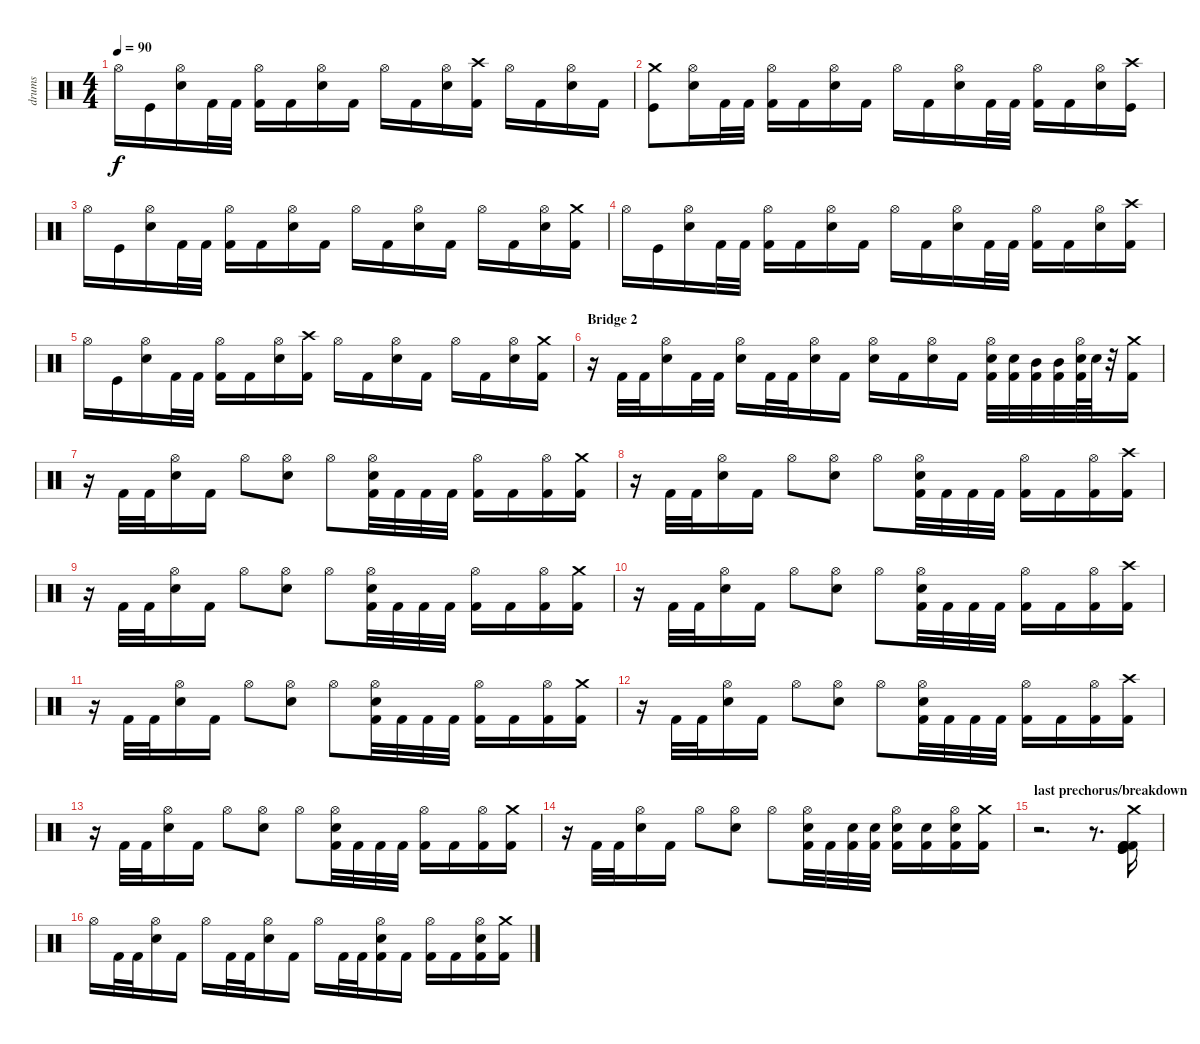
\track ("drums" "drums") {instrument percussion}
\staff {score}
\articulation defaults
\ts (4 4)
\tempo 90
\clef neutral
\ks c "Hi-Hat (open)".16{dy f} "Kick (hit)".16
("Hi-Hat (open)" "Electric Snare (hit)").16 "Kick (hit) 2".32 "Kick (hit) 2".32 ("Hi-Hat (open)" "Kick (hit) 2").16 "Kick (hit) 2".16 ("Hi-Hat (open)" "Electric Snare (hit)").16 "Kick (hit) 2".16 "Hi-Hat (open)".16 "Kick (hit) 2".16 ("Hi-Hat (open)" "Electric Snare (hit)").16 ("Crash high (hit)" "Kick (hit) 2").16 "Hi-Hat (open)".16 "Kick (hit) 2".16 ("Hi-Hat (open)" "Electric Snare (hit)").16 "Kick (hit) 2".16 |
("Crash medium (hit)" "Kick (hit)").8 ("Hi-Hat (open)" "Electric Snare (hit)").16 "Kick (hit) 2".32 "Kick (hit) 2".32 ("Hi-Hat (open)" "Kick (hit) 2").16 "Kick (hit) 2".16 ("Hi-Hat (open)" "Electric Snare (hit)").16 "Kick (hit) 2".16 "Hi-Hat (open)".16 "Kick (hit) 2".16 ("Hi-Hat (open)" "Electric Snare (hit)").16 "Kick (hit) 2".32 "Kick (hit) 2".32 ("Hi-Hat (open)" "Kick (hit) 2").16 "Kick (hit) 2".16 ("Hi-Hat (open)" "Electric Snare (hit)").16 ("Crash high (hit)" "Kick (hit)").16 |
"Hi-Hat (open)".16 "Kick (hit)".16 ("Hi-Hat (open)" "Electric Snare (hit)").16 "Kick (hit) 2".32 "Kick (hit) 2".32 ("Hi-Hat (open)" "Kick (hit) 2").16 "Kick (hit) 2".16 ("Hi-Hat (open)" "Electric Snare (hit)").16 "Kick (hit) 2".16 "Hi-Hat (open)".16 "Kick (hit) 2".16 ("Hi-Hat (open)" "Electric Snare (hit)").16 "Kick (hit) 2".16 "Hi-Hat (open)".16 "Kick (hit) 2".16 ("Hi-Hat (open)" "Electric Snare (hit)").16 ("Crash medium (hit)" "Kick (hit) 2").16 |
"Hi-Hat (open)".16 "Kick (hit)".16 ("Hi-Hat (open)" "Electric Snare (hit)").16 "Kick (hit) 2".32 "Kick (hit) 2".32 ("Hi-Hat (open)" "Kick (hit) 2").16 "Kick (hit) 2".16 ("Hi-Hat (open)" "Electric Snare (hit)").16 "Kick (hit) 2".16 "Hi-Hat (open)".16 "Kick (hit) 2".16 ("Hi-Hat (open)" "Electric Snare (hit)").16 "Kick (hit) 2".32 "Kick (hit) 2".32 ("Hi-Hat (open)" "Kick (hit) 2").16 "Kick (hit) 2".16 ("Hi-Hat (open)" "Electric Snare (hit)").16 ("Crash high (hit)" "Kick (hit) 2").16 |
"Hi-Hat (open)".16 "Kick (hit)".16 ("Hi-Hat (open)" "Electric Snare (hit)").16 "Kick (hit) 2".32 "Kick (hit) 2".32 ("Hi-Hat (open)" "Kick (hit) 2").16 "Kick (hit) 2".16 ("Hi-Hat (open)" "Electric Snare (hit)").16 ("Crash high (hit)" "Kick (hit) 2").16 "Hi-Hat (open)".16 "Kick (hit) 2".16 ("Hi-Hat (open)" "Electric Snare (hit)").16 "Kick (hit) 2".16 "Hi-Hat (open)".16 "Kick (hit) 2".16 ("Hi-Hat (open)" "Electric Snare (hit)").16 ("Crash medium (hit)" "Kick (hit) 2").16 |
\section ("" "Bridge 2")
r.16 "Kick (hit) 2".32 "Kick (hit) 2".32 ("Hi-Hat (open)" "Electric Snare (hit)").16 "Kick (hit) 2".32 "Kick (hit) 2".32 ("Hi-Hat (open)" "Electric Snare (hit)").16 "Kick (hit) 2".32 "Kick (hit) 2".32 ("Hi-Hat (open)" "Electric Snare (hit)").16 "Kick (hit) 2".16 ("Hi-Hat (open)" "Electric Snare (hit)").16 "Kick (hit) 2".16 ("Hi-Hat (open)" "Electric Snare (hit)").16 "Kick (hit) 2".16 ("Hi-Hat (open)" "Electric Snare (hit)" "Kick (hit) 2").32 ("Electric Snare (hit)" "Kick (hit) 2").32 ("Mid Tom (hit)" "Kick (hit) 2").32 ("Mid Tom (hit)" "Kick (hit) 2").32 ("Hi-Hat (open)" "Electric Snare (hit)" "Kick (hit) 2").64 "Electric Snare (hit)".64 r.32 ("Crash medium (hit)" "Kick (hit) 2").16 |
r.16 "Kick (hit) 2".32 "Kick (hit) 2".32 ("Hi-Hat (open)" "Electric Snare (hit)").16 "Kick (hit) 2".16 "Hi-Hat (open)".8 ("Hi-Hat (open)" "Electric Snare (hit)").8 "Hi-Hat (open)".8 ("Hi-Hat (open)" "Electric Snare (hit)" "Kick (hit) 2").32 "Kick (hit) 2".32 "Kick (hit) 2".32 "Kick (hit) 2".32 ("Hi-Hat (open)" "Kick (hit) 2").16 "Kick (hit) 2".16 ("Hi-Hat (open)" "Kick (hit) 2").16 ("Crash medium (hit)" "Kick (hit) 2").16 |
r.16 "Kick (hit) 2".32 "Kick (hit) 2".32 ("Hi-Hat (open)" "Electric Snare (hit)").16 "Kick (hit) 2".16 "Hi-Hat (open)".8 ("Hi-Hat (open)" "Electric Snare (hit)").8 "Hi-Hat (open)".8 ("Hi-Hat (open)" "Electric Snare (hit)" "Kick (hit) 2").32 "Kick (hit) 2".32 "Kick (hit) 2".32 "Kick (hit) 2".32 ("Hi-Hat (open)" "Kick (hit) 2").16 "Kick (hit) 2".16 ("Hi-Hat (open)" "Kick (hit) 2").16 ("Crash high (hit)" "Kick (hit) 2").16 |
r.16 "Kick (hit) 2".32 "Kick (hit) 2".32 ("Hi-Hat (open)" "Electric Snare (hit)").16 "Kick (hit) 2".16 "Hi-Hat (open)".8 ("Hi-Hat (open)" "Electric Snare (hit)").8 "Hi-Hat (open)".8 ("Hi-Hat (open)" "Electric Snare (hit)" "Kick (hit) 2").32 "Kick (hit) 2".32 "Kick (hit) 2".32 "Kick (hit) 2".32 ("Hi-Hat (open)" "Kick (hit) 2").16 "Kick (hit) 2".16 ("Hi-Hat (open)" "Kick (hit) 2").16 ("Crash medium (hit)" "Kick (hit) 2").16 |
r.16 "Kick (hit) 2".32 "Kick (hit) 2".32 ("Hi-Hat (open)" "Electric Snare (hit)").16 "Kick (hit) 2".16 "Hi-Hat (open)".8 ("Hi-Hat (open)" "Electric Snare (hit)").8 "Hi-Hat (open)".8 ("Hi-Hat (open)" "Electric Snare (hit)" "Kick (hit) 2").32 "Kick (hit) 2".32 "Kick (hit) 2".32 "Kick (hit) 2".32 ("Hi-Hat (open)" "Kick (hit) 2").16 "Kick (hit) 2".16 ("Hi-Hat (open)" "Kick (hit) 2").16 ("Crash high (hit)" "Kick (hit) 2").16 |
r.16 "Kick (hit) 2".32 "Kick (hit) 2".32 ("Hi-Hat (open)" "Electric Snare (hit)").16 "Kick (hit) 2".16 "Hi-Hat (open)".8 ("Hi-Hat (open)" "Electric Snare (hit)").8 "Hi-Hat (open)".8 ("Hi-Hat (open)" "Electric Snare (hit)" "Kick (hit) 2").32 "Kick (hit) 2".32 "Kick (hit) 2".32 "Kick (hit) 2".32 ("Hi-Hat (open)" "Kick (hit) 2").16 "Kick (hit) 2".16 ("Hi-Hat (open)" "Kick (hit) 2").16 ("Crash medium (hit)" "Kick (hit) 2").16 |
r.16 "Kick (hit) 2".32 "Kick (hit) 2".32 ("Hi-Hat (open)" "Electric Snare (hit)").16 "Kick (hit) 2".16 "Hi-Hat (open)".8 ("Hi-Hat (open)" "Electric Snare (hit)").8 "Hi-Hat (open)".8 ("Hi-Hat (open)" "Electric Snare (hit)" "Kick (hit) 2").32 "Kick (hit) 2".32 "Kick (hit) 2".32 "Kick (hit) 2".32 ("Hi-Hat (open)" "Kick (hit) 2").16 "Kick (hit) 2".16 ("Hi-Hat (open)" "Kick (hit) 2").16 ("Crash high (hit)" "Kick (hit) 2").16 |
r.16 "Kick (hit) 2".32 "Kick (hit) 2".32 ("Hi-Hat (open)" "Electric Snare (hit)").16 "Kick (hit) 2".16 "Hi-Hat (open)".8 ("Hi-Hat (open)" "Electric Snare (hit)").8 "Hi-Hat (open)".8 ("Hi-Hat (open)" "Electric Snare (hit)" "Kick (hit) 2").32 "Kick (hit) 2".32 "Kick (hit) 2".32 "Kick (hit) 2".32 ("Hi-Hat (open)" "Kick (hit) 2").16 "Kick (hit) 2".16 ("Hi-Hat (open)" "Kick (hit) 2").16 ("Crash medium (hit)" "Kick (hit) 2").16 |
r.16 "Kick (hit) 2".32 "Kick (hit) 2".32 ("Hi-Hat (open)" "Electric Snare (hit)").16 "Kick (hit) 2".16 "Hi-Hat (open)".8 ("Hi-Hat (open)" "Electric Snare (hit)").8 "Hi-Hat (open)".8 ("Hi-Hat (open)" "Electric Snare (hit)" "Kick (hit) 2").32 "Kick (hit) 2".32 ("Electric Snare (hit)" "Kick (hit) 2").32 ("Electric Snare (hit)" "Kick (hit) 2").32 ("Hi-Hat (open)" "Electric Snare (hit)" "Kick (hit) 2").16 ("Electric Snare (hit)" "Kick (hit) 2").16 ("Hi-Hat (open)" "Electric Snare (hit)" "Kick (hit) 2").16 ("Crash medium (hit)" "Kick (hit) 2").16 |
\section ("" "last prechorus/breakdown")
r.2{d} r.8{d} ("Crash medium (hit)" "Kick (hit) 2" "Kick (hit)" "Kick (hit) 2" "Kick (hit)" "Kick (hit) 2").16 |
"Hi-Hat (open)".16 "Kick (hit) 2".32 "Kick (hit) 2".32 ("Hi-Hat (open)" "Electric Snare (hit)").16 "Kick (hit) 2".16 "Hi-Hat (open)".16 "Kick (hit) 2".32 "Kick (hit) 2".32 ("Hi-Hat (open)" "Electric Snare (hit)").16 "Kick (hit) 2".16 "Hi-Hat (open)".16 "Kick (hit) 2".32 "Kick (hit) 2".32 ("Hi-Hat (open)" "Electric Snare (hit)" "Kick (hit) 2").16 "Kick (hit) 2".16 ("Hi-Hat (open)" "Kick (hit) 2").16 "Kick (hit) 2".16 ("Hi-Hat (open)" "Electric Snare (hit)" "Kick (hit) 2").16 ("Crash medium (hit)" "Kick (hit) 2").16
